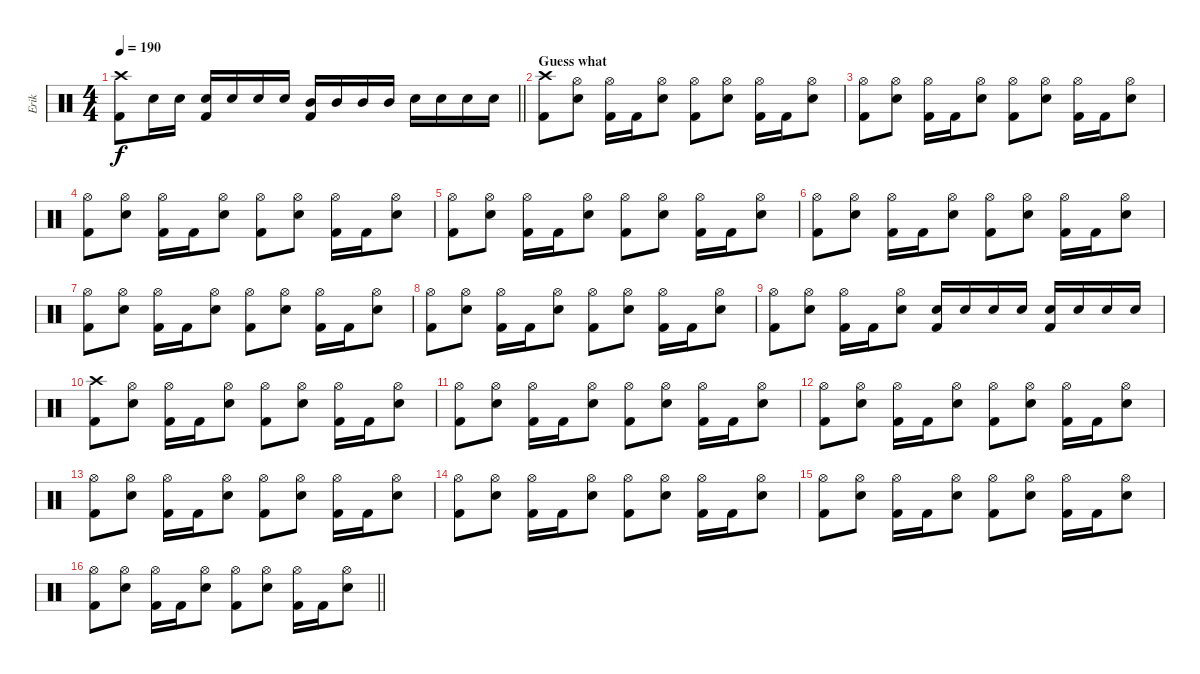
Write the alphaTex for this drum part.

\track ("Erik" "Erik") {instrument percussion}
\staff {score}
\articulation defaults
\ts (4 4)
\tempo 190
\clef neutral
\barLineRight lightlight
\ks c
("Crash high (hit)" "Kick (hit) 2").8{dy f} "Snare (hit) 2".16 "Snare (hit) 2".16 ("Snare (hit) 2" "Kick (hit) 2").16 "Snare (hit) 2".16 "Snare (hit) 2".16 "Snare (hit) 2".16 ("Mid Tom (hit)" "Kick (hit) 2").16 "Mid Tom (hit)".16 "Mid Tom (hit)".16 "Mid Tom (hit)".16 "Snare (hit) 2".16 "Snare (hit) 2".16 "Snare (hit) 2".16 "Snare (hit) 2".16 |
\section ("" "Guess what")
("Crash high (hit)" "Kick (hit) 2").8 ("Hi-Hat (open)" "Snare (hit) 2").8 ("Hi-Hat (open)" "Kick (hit) 2").16 "Kick (hit) 2".16 ("Hi-Hat (open)" "Snare (hit) 2").8 ("Hi-Hat (open)" "Kick (hit) 2").8 ("Hi-Hat (open)" "Snare (hit) 2").8 ("Hi-Hat (open)" "Kick (hit) 2").16 "Kick (hit) 2".16 ("Hi-Hat (open)" "Snare (hit) 2").8 |
("Hi-Hat (open)" "Kick (hit) 2").8 ("Hi-Hat (open)" "Snare (hit) 2").8 ("Hi-Hat (open)" "Kick (hit) 2").16 "Kick (hit) 2".16 ("Hi-Hat (open)" "Snare (hit) 2").8 ("Hi-Hat (open)" "Kick (hit) 2").8 ("Hi-Hat (open)" "Snare (hit) 2").8 ("Hi-Hat (open)" "Kick (hit) 2").16 "Kick (hit) 2".16 ("Hi-Hat (open)" "Snare (hit) 2").8 |
("Hi-Hat (open)" "Kick (hit) 2").8 ("Hi-Hat (open)" "Snare (hit) 2").8 ("Hi-Hat (open)" "Kick (hit) 2").16 "Kick (hit) 2".16 ("Hi-Hat (open)" "Snare (hit) 2").8 ("Hi-Hat (open)" "Kick (hit) 2").8 ("Hi-Hat (open)" "Snare (hit) 2").8 ("Hi-Hat (open)" "Kick (hit) 2").16 "Kick (hit) 2".16 ("Hi-Hat (open)" "Snare (hit) 2").8 |
("Hi-Hat (open)" "Kick (hit) 2").8 ("Hi-Hat (open)" "Snare (hit) 2").8 ("Hi-Hat (open)" "Kick (hit) 2").16 "Kick (hit) 2".16 ("Hi-Hat (open)" "Snare (hit) 2").8 ("Hi-Hat (open)" "Kick (hit) 2").8 ("Hi-Hat (open)" "Snare (hit) 2").8 ("Hi-Hat (open)" "Kick (hit) 2").16 "Kick (hit) 2".16 ("Hi-Hat (open)" "Snare (hit) 2").8 |
("Hi-Hat (open)" "Kick (hit) 2").8 ("Hi-Hat (open)" "Snare (hit) 2").8 ("Hi-Hat (open)" "Kick (hit) 2").16 "Kick (hit) 2".16 ("Hi-Hat (open)" "Snare (hit) 2").8 ("Hi-Hat (open)" "Kick (hit) 2").8 ("Hi-Hat (open)" "Snare (hit) 2").8 ("Hi-Hat (open)" "Kick (hit) 2").16 "Kick (hit) 2".16 ("Hi-Hat (open)" "Snare (hit) 2").8 |
("Hi-Hat (open)" "Kick (hit) 2").8 ("Hi-Hat (open)" "Snare (hit) 2").8 ("Hi-Hat (open)" "Kick (hit) 2").16 "Kick (hit) 2".16 ("Hi-Hat (open)" "Snare (hit) 2").8 ("Hi-Hat (open)" "Kick (hit) 2").8 ("Hi-Hat (open)" "Snare (hit) 2").8 ("Hi-Hat (open)" "Kick (hit) 2").16 "Kick (hit) 2".16 ("Hi-Hat (open)" "Snare (hit) 2").8 |
("Hi-Hat (open)" "Kick (hit) 2").8 ("Hi-Hat (open)" "Snare (hit) 2").8 ("Hi-Hat (open)" "Kick (hit) 2").16 "Kick (hit) 2".16 ("Hi-Hat (open)" "Snare (hit) 2").8 ("Hi-Hat (open)" "Kick (hit) 2").8 ("Hi-Hat (open)" "Snare (hit) 2").8 ("Hi-Hat (open)" "Kick (hit) 2").16 "Kick (hit) 2".16 ("Hi-Hat (open)" "Snare (hit) 2").8 |
("Hi-Hat (open)" "Kick (hit) 2").8 ("Hi-Hat (open)" "Snare (hit) 2").8 ("Hi-Hat (open)" "Kick (hit) 2").16 "Kick (hit) 2".16 ("Hi-Hat (open)" "Snare (hit) 2").8 ("Snare (hit) 2" "Kick (hit) 2").16 "Snare (hit) 2".16 "Snare (hit) 2".16 "Snare (hit) 2".16 ("Snare (hit) 2" "Kick (hit) 2").16 "Snare (hit) 2".16 "Snare (hit) 2".16 "Snare (hit) 2".16 |
("Crash high (hit)" "Kick (hit) 2").8 ("Hi-Hat (open)" "Snare (hit) 2").8 ("Hi-Hat (open)" "Kick (hit) 2").16 "Kick (hit) 2".16 ("Hi-Hat (open)" "Snare (hit) 2").8 ("Hi-Hat (open)" "Kick (hit) 2").8 ("Hi-Hat (open)" "Snare (hit) 2").8 ("Hi-Hat (open)" "Kick (hit) 2").16 "Kick (hit) 2".16 ("Hi-Hat (open)" "Snare (hit) 2").8 |
("Hi-Hat (open)" "Kick (hit) 2").8 ("Hi-Hat (open)" "Snare (hit) 2").8 ("Hi-Hat (open)" "Kick (hit) 2").16 "Kick (hit) 2".16 ("Hi-Hat (open)" "Snare (hit) 2").8 ("Hi-Hat (open)" "Kick (hit) 2").8 ("Hi-Hat (open)" "Snare (hit) 2").8 ("Hi-Hat (open)" "Kick (hit) 2").16 "Kick (hit) 2".16 ("Hi-Hat (open)" "Snare (hit) 2").8 |
("Hi-Hat (open)" "Kick (hit) 2").8 ("Hi-Hat (open)" "Snare (hit) 2").8 ("Hi-Hat (open)" "Kick (hit) 2").16 "Kick (hit) 2".16 ("Hi-Hat (open)" "Snare (hit) 2").8 ("Hi-Hat (open)" "Kick (hit) 2").8 ("Hi-Hat (open)" "Snare (hit) 2").8 ("Hi-Hat (open)" "Kick (hit) 2").16 "Kick (hit) 2".16 ("Hi-Hat (open)" "Snare (hit) 2").8 |
("Hi-Hat (open)" "Kick (hit) 2").8 ("Hi-Hat (open)" "Snare (hit) 2").8 ("Hi-Hat (open)" "Kick (hit) 2").16 "Kick (hit) 2".16 ("Hi-Hat (open)" "Snare (hit) 2").8 ("Hi-Hat (open)" "Kick (hit) 2").8 ("Hi-Hat (open)" "Snare (hit) 2").8 ("Hi-Hat (open)" "Kick (hit) 2").16 "Kick (hit) 2".16 ("Hi-Hat (open)" "Snare (hit) 2").8 |
("Hi-Hat (open)" "Kick (hit) 2").8 ("Hi-Hat (open)" "Snare (hit) 2").8 ("Hi-Hat (open)" "Kick (hit) 2").16 "Kick (hit) 2".16 ("Hi-Hat (open)" "Snare (hit) 2").8 ("Hi-Hat (open)" "Kick (hit) 2").8 ("Hi-Hat (open)" "Snare (hit) 2").8 ("Hi-Hat (open)" "Kick (hit) 2").16 "Kick (hit) 2".16 ("Hi-Hat (open)" "Snare (hit) 2").8 |
("Hi-Hat (open)" "Kick (hit) 2").8 ("Hi-Hat (open)" "Snare (hit) 2").8 ("Hi-Hat (open)" "Kick (hit) 2").16 "Kick (hit) 2".16 ("Hi-Hat (open)" "Snare (hit) 2").8 ("Hi-Hat (open)" "Kick (hit) 2").8 ("Hi-Hat (open)" "Snare (hit) 2").8 ("Hi-Hat (open)" "Kick (hit) 2").16 "Kick (hit) 2".16 ("Hi-Hat (open)" "Snare (hit) 2").8 |
\barLineRight lightlight
("Hi-Hat (open)" "Kick (hit) 2").8 ("Hi-Hat (open)" "Snare (hit) 2").8 ("Hi-Hat (open)" "Kick (hit) 2").16 "Kick (hit) 2".16 ("Hi-Hat (open)" "Snare (hit) 2").8 ("Hi-Hat (open)" "Kick (hit) 2").8 ("Hi-Hat (open)" "Snare (hit) 2").8 ("Hi-Hat (open)" "Kick (hit) 2").16 "Kick (hit) 2".16 ("Hi-Hat (open)" "Snare (hit) 2").8
